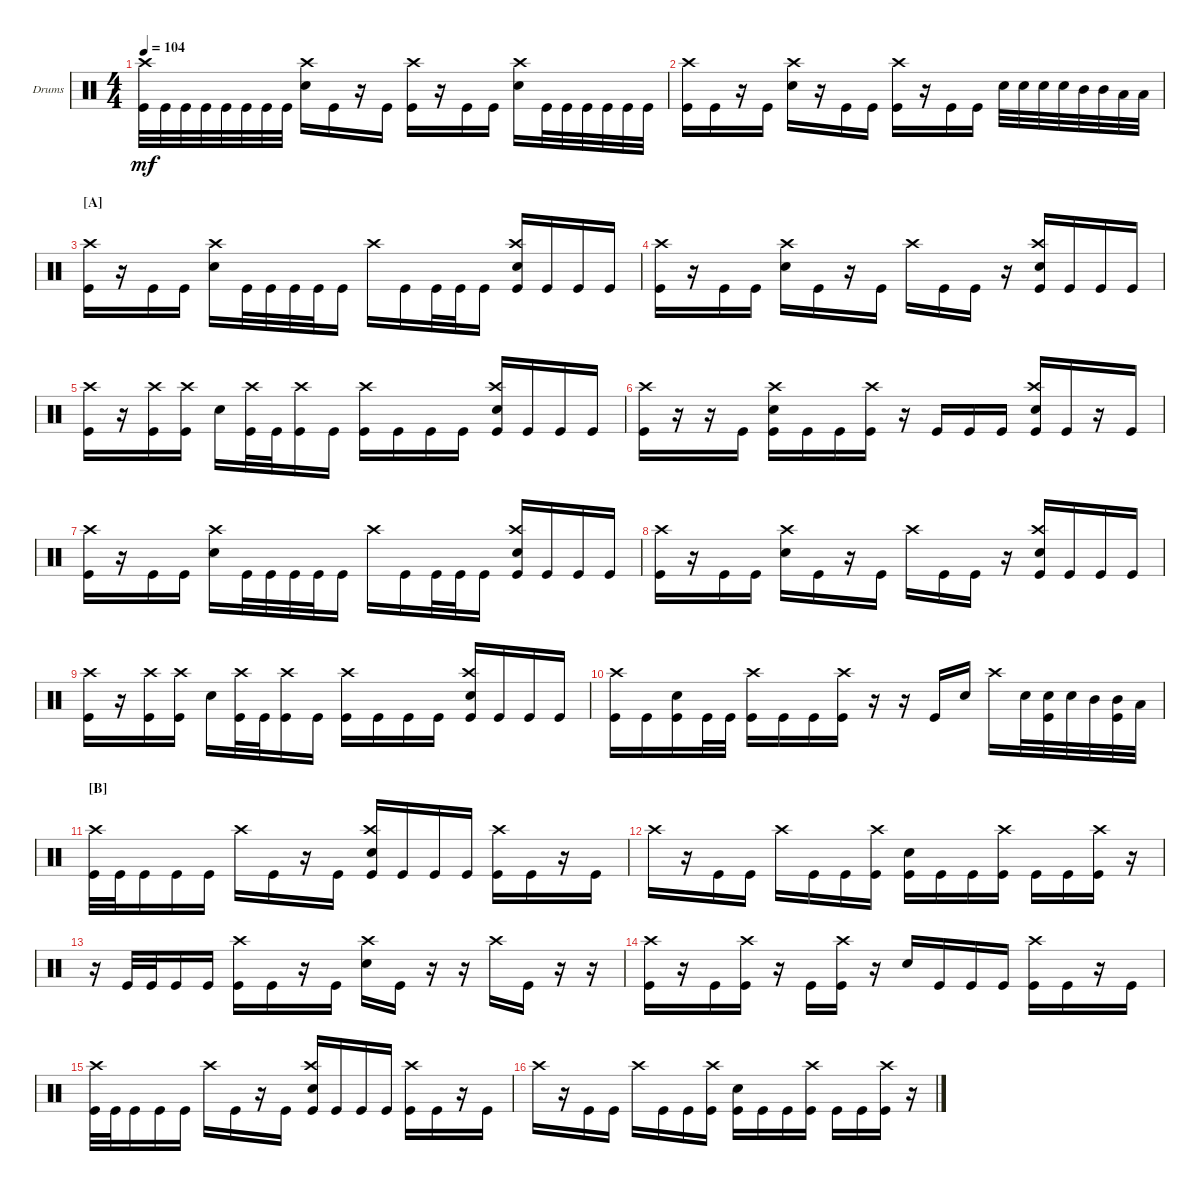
\bracketExtendMode groupsimilarinstruments
\firstSystemTrackNameOrientation horizontal
\otherSystemsTrackNameOrientation horizontal
\track ("Drumkit" "Drums") {instrument percussion}
\staff {score}
\articulation defaults
\ts (4 4)
\tempo 104
\clef neutral
\ks c
("Kick (hit)" "Crash high (hit)").32{dy mf} "Kick (hit)".32 "Kick (hit)".32 "Kick (hit)".32 "Kick (hit)".32 "Kick (hit)".32 "Kick (hit)".32 "Kick (hit)".32 ("Snare (hit) 2" "Crash high (hit)").16 "Kick (hit)".16 r.16 "Kick (hit)".16 ("Kick (hit)" "Crash high (hit)").16 r.16 "Kick (hit)".16 "Kick (hit)".16 ("Snare (hit) 2" "Crash high (hit)").16 "Kick (hit)".32 "Kick (hit)".32 "Kick (hit)".32 "Kick (hit)".32 "Kick (hit)".32 "Kick (hit)".32 |
("Kick (hit)" "Crash high (hit)").16 "Kick (hit)".16 r.16 "Kick (hit)".16 ("Snare (hit) 2" "Crash high (hit)").16 r.16 "Kick (hit)".16 "Kick (hit)".16 ("Kick (hit)" "Crash high (hit)").16 r.16 "Kick (hit)".16 "Kick (hit)".16 "Snare (hit) 2".32 "Snare (hit) 2".32 "Snare (hit) 2".32 "Snare (hit) 2".32 "Mid Tom (hit)".32 "Mid Tom (hit)".32 "Low Tom (hit)".32 "Low Tom (hit)".32 |
\section ("A" "")
("Kick (hit)" "Crash high (hit)").16 r.16 "Kick (hit)".16 "Kick (hit)".16 ("Snare (hit) 2" "Crash high (hit)").16 "Kick (hit)".32 "Kick (hit)".32 "Kick (hit)".32 "Kick (hit)".32 "Kick (hit)".16 "Crash high (hit)".16 "Kick (hit)".16 "Kick (hit)".32 "Kick (hit)".32 "Kick (hit)".16 ("Snare (hit) 2" "Kick (hit)" "Crash high (hit)").16 "Kick (hit)".16 "Kick (hit)".16 "Kick (hit)".16 |
("Kick (hit)" "Crash high (hit)").16 r.16 "Kick (hit)".16 "Kick (hit)".16 ("Snare (hit) 2" "Crash high (hit)").16 "Kick (hit)".16 r.16 "Kick (hit)".16 "Crash high (hit)".16 "Kick (hit)".16 "Kick (hit)".16 r.16 ("Snare (hit) 2" "Kick (hit)" "Crash high (hit)").16 "Kick (hit)".16 "Kick (hit)".16 "Kick (hit)".16 |
("Kick (hit)" "Crash high (hit)").16 r.16 ("Kick (hit)" "Crash high (hit)").16 ("Kick (hit)" "Crash high (hit)").16 "Snare (hit) 2".16 ("Kick (hit)" "Crash high (hit)").32 "Kick (hit)".32 ("Kick (hit)" "Crash high (hit)").16 "Kick (hit)".16 ("Kick (hit)" "Crash high (hit)").16 "Kick (hit)".16 "Kick (hit)".16 "Kick (hit)".16 ("Snare (hit) 2" "Kick (hit)" "Crash high (hit)").16 "Kick (hit)".16 "Kick (hit)".16 "Kick (hit)".16 |
("Kick (hit)" "Crash high (hit)").16 r.16 r.16 "Kick (hit)".16 ("Snare (hit) 2" "Kick (hit)" "Crash high (hit)").16 "Kick (hit)".16 "Kick (hit)".16 ("Kick (hit)" "Crash high (hit)").16 r.16 "Kick (hit)".16 "Kick (hit)".16 "Kick (hit)".16 ("Snare (hit) 2" "Kick (hit)" "Crash high (hit)").16 "Kick (hit)".16 r.16 "Kick (hit)".16 |
("Kick (hit)" "Crash high (hit)").16 r.16 "Kick (hit)".16 "Kick (hit)".16 ("Snare (hit) 2" "Crash high (hit)").16 "Kick (hit)".32 "Kick (hit)".32 "Kick (hit)".32 "Kick (hit)".32 "Kick (hit)".16 "Crash high (hit)".16 "Kick (hit)".16 "Kick (hit)".32 "Kick (hit)".32 "Kick (hit)".16 ("Snare (hit) 2" "Kick (hit)" "Crash high (hit)").16 "Kick (hit)".16 "Kick (hit)".16 "Kick (hit)".16 |
("Kick (hit)" "Crash high (hit)").16 r.16 "Kick (hit)".16 "Kick (hit)".16 ("Snare (hit) 2" "Crash high (hit)").16 "Kick (hit)".16 r.16 "Kick (hit)".16 "Crash high (hit)".16 "Kick (hit)".16 "Kick (hit)".16 r.16 ("Snare (hit) 2" "Kick (hit)" "Crash high (hit)").16 "Kick (hit)".16 "Kick (hit)".16 "Kick (hit)".16 |
("Kick (hit)" "Crash high (hit)").16 r.16 ("Kick (hit)" "Crash high (hit)").16 ("Kick (hit)" "Crash high (hit)").16 "Snare (hit) 2".16 ("Kick (hit)" "Crash high (hit)").32 "Kick (hit)".32 ("Kick (hit)" "Crash high (hit)").16 "Kick (hit)".16 ("Kick (hit)" "Crash high (hit)").16 "Kick (hit)".16 "Kick (hit)".16 "Kick (hit)".16 ("Snare (hit) 2" "Kick (hit)" "Crash high (hit)").16 "Kick (hit)".16 "Kick (hit)".16 "Kick (hit)".16 |
("Kick (hit)" "Crash high (hit)").16 "Kick (hit)".16 ("Kick (hit)" "Snare (hit) 2").16 "Kick (hit)".32 "Kick (hit)".32 ("Kick (hit)" "Crash high (hit)").16 "Kick (hit)".16 "Kick (hit)".16 ("Kick (hit)" "Crash high (hit)").16 r.16 r.16 "Kick (hit)".16 "Snare (hit) 2".16 "Crash high (hit)".16 "Snare (hit) 2".32 ("Snare (hit) 2" "Kick (hit)").32 "Snare (hit) 2".32 "Mid Tom (hit)".32 ("Kick (hit)" "Mid Tom (hit)").32 "Low Tom (hit)".32 |
\section ("B" "")
("Kick (hit)" "Crash high (hit)").32 "Kick (hit)".32 "Kick (hit)".16 "Kick (hit)".16 "Kick (hit)".16 "Crash high (hit)".16 "Kick (hit)".16 r.16 "Kick (hit)".16 ("Snare (hit) 2" "Kick (hit)" "Crash high (hit)").16 "Kick (hit)".16 "Kick (hit)".16 "Kick (hit)".16 ("Kick (hit)" "Crash high (hit)").16 "Kick (hit)".16 r.16 "Kick (hit)".16 |
"Crash high (hit)".16 r.16 "Kick (hit)".16 "Kick (hit)".16 "Crash high (hit)".16 "Kick (hit)".16 "Kick (hit)".16 ("Kick (hit)" "Crash high (hit)").16 ("Snare (hit) 2" "Kick (hit)").16 "Kick (hit)".16 "Kick (hit)".16 ("Kick (hit)" "Crash high (hit)").16 "Kick (hit)".16 "Kick (hit)".16 ("Kick (hit)" "Crash high (hit)").16 r.16 |
r.16 "Kick (hit)".32 "Kick (hit)".32 "Kick (hit)".16 "Kick (hit)".16 ("Kick (hit)" "Crash high (hit)").16 "Kick (hit)".16 r.16 "Kick (hit)".16 ("Snare (hit) 2" "Crash high (hit)").16 "Kick (hit)".16 r.16 r.16 "Crash high (hit)".16 "Kick (hit)".16 r.16 r.16 |
("Kick (hit)" "Crash high (hit)").16 r.16 "Kick (hit)".16 ("Kick (hit)" "Crash high (hit)").16 r.16 "Kick (hit)".16 ("Kick (hit)" "Crash high (hit)").16 r.16 "Snare (hit) 2".16 "Kick (hit)".16 "Kick (hit)".16 "Kick (hit)".16 ("Kick (hit)" "Crash high (hit)").16 "Kick (hit)".16 r.16 "Kick (hit)".16 |
("Kick (hit)" "Crash high (hit)").32 "Kick (hit)".32 "Kick (hit)".16 "Kick (hit)".16 "Kick (hit)".16 "Crash high (hit)".16 "Kick (hit)".16 r.16 "Kick (hit)".16 ("Snare (hit) 2" "Kick (hit)" "Crash high (hit)").16 "Kick (hit)".16 "Kick (hit)".16 "Kick (hit)".16 ("Kick (hit)" "Crash high (hit)").16 "Kick (hit)".16 r.16 "Kick (hit)".16 |
"Crash high (hit)".16 r.16 "Kick (hit)".16 "Kick (hit)".16 "Crash high (hit)".16 "Kick (hit)".16 "Kick (hit)".16 ("Kick (hit)" "Crash high (hit)").16 ("Snare (hit) 2" "Kick (hit)").16 "Kick (hit)".16 "Kick (hit)".16 ("Kick (hit)" "Crash high (hit)").16 "Kick (hit)".16 "Kick (hit)".16 ("Kick (hit)" "Crash high (hit)").16 r.16
